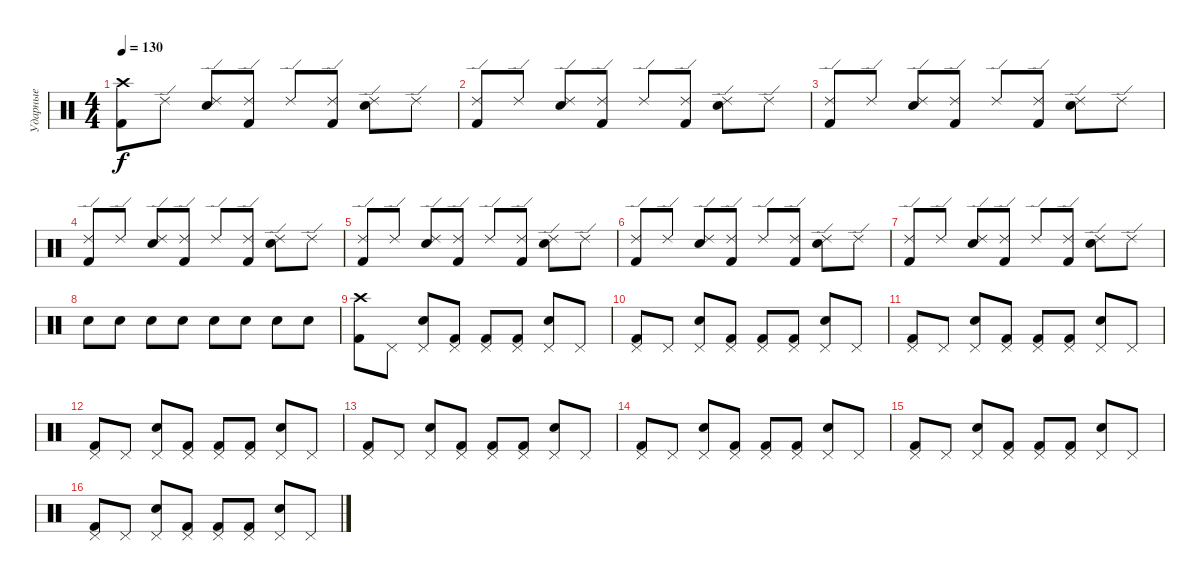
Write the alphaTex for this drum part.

\track ("Ударные" "Ударные") {instrument percussion}
\staff {score}
\articulation defaults
\ts (4 4)
\tempo 130
\clef neutral
\ks c
("Kick (hit) 2" "Crash high (hit)").8{dy f volume 12} "Ride (edge) 2".8 ("Snare (hit) 2" "Ride (edge) 2").8 ("Kick (hit) 2" "Ride (edge) 2").8 "Ride (edge) 2".8 ("Kick (hit) 2" "Ride (edge) 2").8 ("Snare (hit) 2" "Ride (edge) 2").8 "Ride (edge) 2".8 |
("Kick (hit) 2" "Ride (edge) 2").8 "Ride (edge) 2".8 ("Snare (hit) 2" "Ride (edge) 2").8 ("Kick (hit) 2" "Ride (edge) 2").8 "Ride (edge) 2".8 ("Kick (hit) 2" "Ride (edge) 2").8 ("Snare (hit) 2" "Ride (edge) 2").8 "Ride (edge) 2".8 |
("Kick (hit) 2" "Ride (edge) 2").8 "Ride (edge) 2".8 ("Snare (hit) 2" "Ride (edge) 2").8 ("Kick (hit) 2" "Ride (edge) 2").8 "Ride (edge) 2".8 ("Kick (hit) 2" "Ride (edge) 2").8 ("Snare (hit) 2" "Ride (edge) 2").8 "Ride (edge) 2".8 |
("Kick (hit) 2" "Ride (edge) 2").8 "Ride (edge) 2".8 ("Snare (hit) 2" "Ride (edge) 2").8 ("Kick (hit) 2" "Ride (edge) 2").8 "Ride (edge) 2".8 ("Kick (hit) 2" "Ride (edge) 2").8 ("Snare (hit) 2" "Ride (edge) 2").8 "Ride (edge) 2".8 |
("Kick (hit) 2" "Ride (edge) 2").8 "Ride (edge) 2".8 ("Snare (hit) 2" "Ride (edge) 2").8 ("Kick (hit) 2" "Ride (edge) 2").8 "Ride (edge) 2".8 ("Kick (hit) 2" "Ride (edge) 2").8 ("Snare (hit) 2" "Ride (edge) 2").8 "Ride (edge) 2".8 |
("Kick (hit) 2" "Ride (edge) 2").8 "Ride (edge) 2".8 ("Snare (hit) 2" "Ride (edge) 2").8 ("Kick (hit) 2" "Ride (edge) 2").8 "Ride (edge) 2".8 ("Kick (hit) 2" "Ride (edge) 2").8 ("Snare (hit) 2" "Ride (edge) 2").8 "Ride (edge) 2".8 |
("Kick (hit) 2" "Ride (edge) 2").8 "Ride (edge) 2".8 ("Snare (hit) 2" "Ride (edge) 2").8 ("Kick (hit) 2" "Ride (edge) 2").8 "Ride (edge) 2".8 ("Kick (hit) 2" "Ride (edge) 2").8 ("Snare (hit) 2" "Ride (edge) 2").8 "Ride (edge) 2".8 |
"Snare (hit) 2".8 "Snare (hit) 2".8 "Snare (hit) 2".8 "Snare (hit) 2".8 "Snare (hit) 2".8 "Snare (hit) 2".8 "Snare (hit) 2".8 "Snare (hit) 2".8 |
("Kick (hit) 2" "Crash high (hit)").8 "Pedal Hi-Hat (hit)".8 ("Pedal Hi-Hat (hit)" "Snare (hit) 2").8 ("Pedal Hi-Hat (hit)" "Kick (hit) 2").8 ("Pedal Hi-Hat (hit)" "Kick (hit) 2").8 ("Pedal Hi-Hat (hit)" "Kick (hit) 2").8 ("Pedal Hi-Hat (hit)" "Snare (hit) 2").8 "Pedal Hi-Hat (hit)".8 |
("Pedal Hi-Hat (hit)" "Kick (hit) 2").8 "Pedal Hi-Hat (hit)".8 ("Pedal Hi-Hat (hit)" "Snare (hit) 2").8 ("Pedal Hi-Hat (hit)" "Kick (hit) 2").8 ("Pedal Hi-Hat (hit)" "Kick (hit) 2").8 ("Pedal Hi-Hat (hit)" "Kick (hit) 2").8 ("Pedal Hi-Hat (hit)" "Snare (hit) 2").8 "Pedal Hi-Hat (hit)".8 |
("Pedal Hi-Hat (hit)" "Kick (hit) 2").8 "Pedal Hi-Hat (hit)".8 ("Pedal Hi-Hat (hit)" "Snare (hit) 2").8 ("Pedal Hi-Hat (hit)" "Kick (hit) 2").8 ("Pedal Hi-Hat (hit)" "Kick (hit) 2").8 ("Pedal Hi-Hat (hit)" "Kick (hit) 2").8 ("Pedal Hi-Hat (hit)" "Snare (hit) 2").8 "Pedal Hi-Hat (hit)".8 |
("Pedal Hi-Hat (hit)" "Kick (hit) 2").8 "Pedal Hi-Hat (hit)".8 ("Pedal Hi-Hat (hit)" "Snare (hit) 2").8 ("Pedal Hi-Hat (hit)" "Kick (hit) 2").8 ("Pedal Hi-Hat (hit)" "Kick (hit) 2").8 ("Pedal Hi-Hat (hit)" "Kick (hit) 2").8 ("Pedal Hi-Hat (hit)" "Snare (hit) 2").8 "Pedal Hi-Hat (hit)".8 |
("Pedal Hi-Hat (hit)" "Kick (hit) 2").8 "Pedal Hi-Hat (hit)".8 ("Pedal Hi-Hat (hit)" "Snare (hit) 2").8 ("Pedal Hi-Hat (hit)" "Kick (hit) 2").8 ("Pedal Hi-Hat (hit)" "Kick (hit) 2").8 ("Pedal Hi-Hat (hit)" "Kick (hit) 2").8 ("Pedal Hi-Hat (hit)" "Snare (hit) 2").8 "Pedal Hi-Hat (hit)".8 |
("Pedal Hi-Hat (hit)" "Kick (hit) 2").8 "Pedal Hi-Hat (hit)".8 ("Pedal Hi-Hat (hit)" "Snare (hit) 2").8 ("Pedal Hi-Hat (hit)" "Kick (hit) 2").8 ("Pedal Hi-Hat (hit)" "Kick (hit) 2").8 ("Pedal Hi-Hat (hit)" "Kick (hit) 2").8 ("Pedal Hi-Hat (hit)" "Snare (hit) 2").8 "Pedal Hi-Hat (hit)".8 |
("Pedal Hi-Hat (hit)" "Kick (hit) 2").8 "Pedal Hi-Hat (hit)".8 ("Pedal Hi-Hat (hit)" "Snare (hit) 2").8 ("Pedal Hi-Hat (hit)" "Kick (hit) 2").8 ("Pedal Hi-Hat (hit)" "Kick (hit) 2").8 ("Pedal Hi-Hat (hit)" "Kick (hit) 2").8 ("Pedal Hi-Hat (hit)" "Snare (hit) 2").8 "Pedal Hi-Hat (hit)".8 |
("Pedal Hi-Hat (hit)" "Kick (hit) 2").8 "Pedal Hi-Hat (hit)".8 ("Pedal Hi-Hat (hit)" "Snare (hit) 2").8 ("Pedal Hi-Hat (hit)" "Kick (hit) 2").8 ("Pedal Hi-Hat (hit)" "Kick (hit) 2").8 ("Pedal Hi-Hat (hit)" "Kick (hit) 2").8 ("Pedal Hi-Hat (hit)" "Snare (hit) 2").8 "Pedal Hi-Hat (hit)".8
